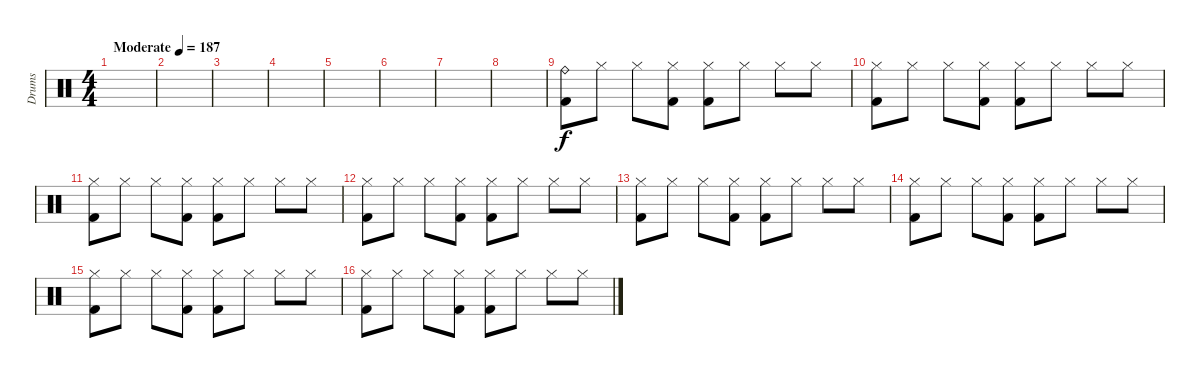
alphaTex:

\track ("Drums" "Drums") {instrument percussion}
\staff {score}
\articulation defaults
\ts (4 4)
\tempo (187 "Moderate")
\clef neutral
\ks c
|
|
|
|
|
|
|
|
("Ride (bell)" "Kick (hit) 2").8 "Hi-Hat (closed)".8 "Hi-Hat (closed)".8 ("Hi-Hat (closed)" "Kick (hit) 2").8 ("Hi-Hat (closed)" "Kick (hit) 2").8 "Hi-Hat (closed)".8 "Hi-Hat (closed)".8 "Hi-Hat (closed)".8 |
("Hi-Hat (closed)" "Kick (hit) 2").8 "Hi-Hat (closed)".8 "Hi-Hat (closed)".8 ("Hi-Hat (closed)" "Kick (hit) 2").8 ("Hi-Hat (closed)" "Kick (hit) 2").8 "Hi-Hat (closed)".8 "Hi-Hat (closed)".8 "Hi-Hat (closed)".8 |
("Hi-Hat (closed)" "Kick (hit) 2").8 "Hi-Hat (closed)".8 "Hi-Hat (closed)".8 ("Hi-Hat (closed)" "Kick (hit) 2").8 ("Hi-Hat (closed)" "Kick (hit) 2").8 "Hi-Hat (closed)".8 "Hi-Hat (closed)".8 "Hi-Hat (closed)".8 |
("Hi-Hat (closed)" "Kick (hit) 2").8 "Hi-Hat (closed)".8 "Hi-Hat (closed)".8 ("Hi-Hat (closed)" "Kick (hit) 2").8 ("Hi-Hat (closed)" "Kick (hit) 2").8 "Hi-Hat (closed)".8 "Hi-Hat (closed)".8 "Hi-Hat (closed)".8 |
("Hi-Hat (closed)" "Kick (hit) 2").8 "Hi-Hat (closed)".8 "Hi-Hat (closed)".8 ("Hi-Hat (closed)" "Kick (hit) 2").8 ("Hi-Hat (closed)" "Kick (hit) 2").8 "Hi-Hat (closed)".8 "Hi-Hat (closed)".8 "Hi-Hat (closed)".8 |
("Hi-Hat (closed)" "Kick (hit) 2").8 "Hi-Hat (closed)".8 "Hi-Hat (closed)".8 ("Hi-Hat (closed)" "Kick (hit) 2").8 ("Hi-Hat (closed)" "Kick (hit) 2").8 "Hi-Hat (closed)".8 "Hi-Hat (closed)".8 "Hi-Hat (closed)".8 |
("Hi-Hat (closed)" "Kick (hit) 2").8 "Hi-Hat (closed)".8 "Hi-Hat (closed)".8 ("Hi-Hat (closed)" "Kick (hit) 2").8 ("Hi-Hat (closed)" "Kick (hit) 2").8 "Hi-Hat (closed)".8 "Hi-Hat (closed)".8 "Hi-Hat (closed)".8 |
("Hi-Hat (closed)" "Kick (hit) 2").8 "Hi-Hat (closed)".8 "Hi-Hat (closed)".8 ("Hi-Hat (closed)" "Kick (hit) 2").8 ("Hi-Hat (closed)" "Kick (hit) 2").8 "Hi-Hat (closed)".8 "Hi-Hat (closed)".8 "Hi-Hat (closed)".8
